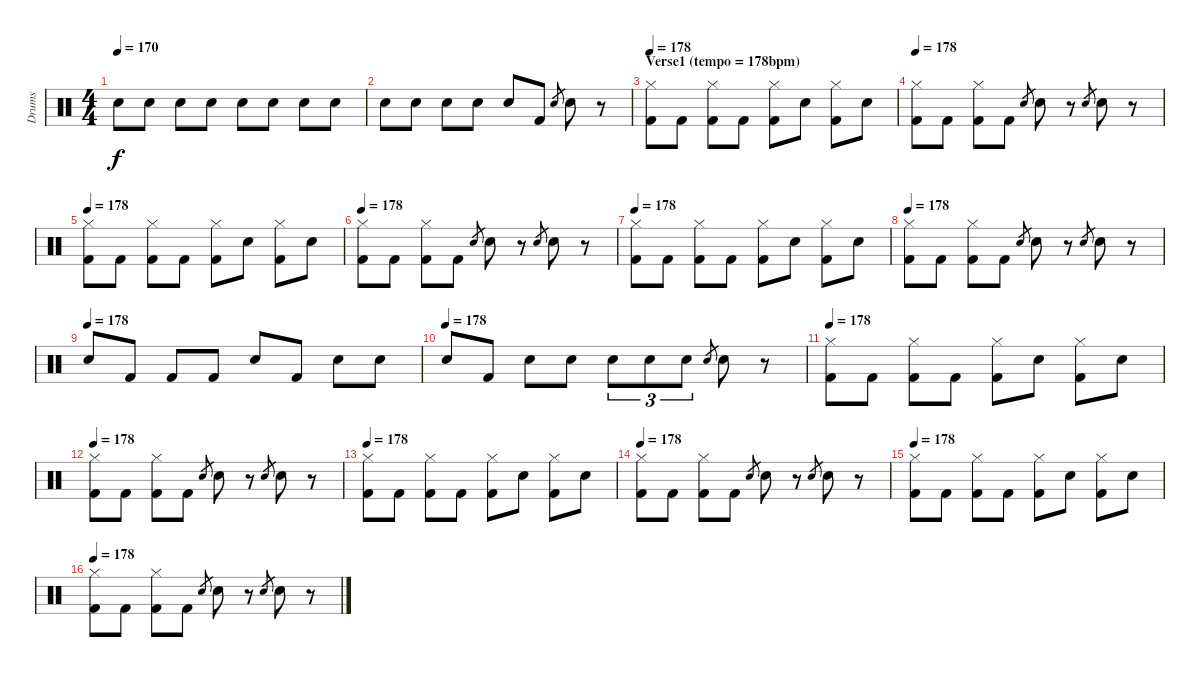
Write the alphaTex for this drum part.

\track ("Drums" "Drums") {instrument percussion}
\staff {score}
\articulation defaults
\ts (4 4)
\tempo 170
\clef neutral
\ks c "Snare (hit) 2".8{dy f} "Snare (hit) 2".8 "Snare (hit) 2".8 "Snare (hit) 2".8 "Snare (hit) 2".8 "Snare (hit) 2".8 "Snare (hit) 2".8 "Snare (hit) 2".8
|
"Snare (hit) 2".8 "Snare (hit) 2".8 "Snare (hit) 2".8 "Snare (hit) 2".8 "Snare (hit) 2".8 "Kick (hit) 2".8 "Snare (hit) 2".8{gr} "Snare (hit) 2".8 r.8 |
\section ("" "Verse1 (tempo = 178bpm)")
\tempo 178
("Hi-Hat (closed)" "Kick (hit) 2").8 "Kick (hit) 2".8 ("Hi-Hat (closed)" "Kick (hit) 2").8 "Kick (hit) 2".8 ("Hi-Hat (closed)" "Kick (hit) 2").8 "Snare (hit) 2".8 ("Hi-Hat (closed)" "Kick (hit) 2").8 "Snare (hit) 2".8 |
\tempo 178
("Hi-Hat (closed)" "Kick (hit) 2").8 "Kick (hit) 2".8 ("Hi-Hat (closed)" "Kick (hit) 2").8 "Kick (hit) 2".8 "Snare (hit) 2".8{gr} "Snare (hit) 2".8 r.8 "Snare (hit) 2".8{gr} "Snare (hit) 2".8 r.8 |
\tempo 178
("Hi-Hat (closed)" "Kick (hit) 2").8 "Kick (hit) 2".8 ("Hi-Hat (closed)" "Kick (hit) 2").8 "Kick (hit) 2".8 ("Hi-Hat (closed)" "Kick (hit) 2").8 "Snare (hit) 2".8 ("Hi-Hat (closed)" "Kick (hit) 2").8 "Snare (hit) 2".8 |
\tempo 178
("Hi-Hat (closed)" "Kick (hit) 2").8 "Kick (hit) 2".8 ("Hi-Hat (closed)" "Kick (hit) 2").8 "Kick (hit) 2".8 "Snare (hit) 2".8{gr} "Snare (hit) 2".8 r.8 "Snare (hit) 2".8{gr} "Snare (hit) 2".8 r.8 |
\tempo 178
("Hi-Hat (closed)" "Kick (hit) 2").8 "Kick (hit) 2".8 ("Hi-Hat (closed)" "Kick (hit) 2").8 "Kick (hit) 2".8 ("Hi-Hat (closed)" "Kick (hit) 2").8 "Snare (hit) 2".8 ("Hi-Hat (closed)" "Kick (hit) 2").8 "Snare (hit) 2".8 |
\tempo 178
("Hi-Hat (closed)" "Kick (hit) 2").8 "Kick (hit) 2".8 ("Hi-Hat (closed)" "Kick (hit) 2").8 "Kick (hit) 2".8 "Snare (hit) 2".8{gr} "Snare (hit) 2".8 r.8 "Snare (hit) 2".8{gr} "Snare (hit) 2".8 r.8 |
\tempo (178)
"Snare (hit) 2".8 "Kick (hit) 2".8 "Kick (hit) 2".8 "Kick (hit) 2".8 "Snare (hit) 2".8 "Kick (hit) 2".8 "Snare (hit) 2".8 "Snare (hit) 2".8 |
\tempo (178)
"Snare (hit) 2".8 "Kick (hit) 2".8 "Snare (hit) 2".8 "Snare (hit) 2".8 "Snare (hit) 2".8{tu (3 2)} "Snare (hit) 2".8{tu (3 2)} "Snare (hit) 2".8{tu (3 2)} "Snare (hit) 2".8{gr} "Snare (hit) 2".8 r.8 |
\tempo 178
("Hi-Hat (closed)" "Kick (hit) 2").8 "Kick (hit) 2".8 ("Hi-Hat (closed)" "Kick (hit) 2").8 "Kick (hit) 2".8 ("Hi-Hat (closed)" "Kick (hit) 2").8 "Snare (hit) 2".8 ("Hi-Hat (closed)" "Kick (hit) 2").8 "Snare (hit) 2".8 |
\tempo 178
("Hi-Hat (closed)" "Kick (hit) 2").8 "Kick (hit) 2".8 ("Hi-Hat (closed)" "Kick (hit) 2").8 "Kick (hit) 2".8 "Snare (hit) 2".8{gr} "Snare (hit) 2".8 r.8 "Snare (hit) 2".8{gr} "Snare (hit) 2".8 r.8 |
\tempo 178
("Hi-Hat (closed)" "Kick (hit) 2").8 "Kick (hit) 2".8 ("Hi-Hat (closed)" "Kick (hit) 2").8 "Kick (hit) 2".8 ("Hi-Hat (closed)" "Kick (hit) 2").8 "Snare (hit) 2".8 ("Hi-Hat (closed)" "Kick (hit) 2").8 "Snare (hit) 2".8 |
\tempo 178
("Hi-Hat (closed)" "Kick (hit) 2").8 "Kick (hit) 2".8 ("Hi-Hat (closed)" "Kick (hit) 2").8 "Kick (hit) 2".8 "Snare (hit) 2".8{gr} "Snare (hit) 2".8 r.8 "Snare (hit) 2".8{gr} "Snare (hit) 2".8 r.8 |
\tempo 178
("Hi-Hat (closed)" "Kick (hit) 2").8 "Kick (hit) 2".8 ("Hi-Hat (closed)" "Kick (hit) 2").8 "Kick (hit) 2".8 ("Hi-Hat (closed)" "Kick (hit) 2").8 "Snare (hit) 2".8 ("Hi-Hat (closed)" "Kick (hit) 2").8 "Snare (hit) 2".8 |
\tempo 178
("Hi-Hat (closed)" "Kick (hit) 2").8 "Kick (hit) 2".8 ("Hi-Hat (closed)" "Kick (hit) 2").8 "Kick (hit) 2".8 "Snare (hit) 2".8{gr} "Snare (hit) 2".8 r.8 "Snare (hit) 2".8{gr} "Snare (hit) 2".8 r.8
